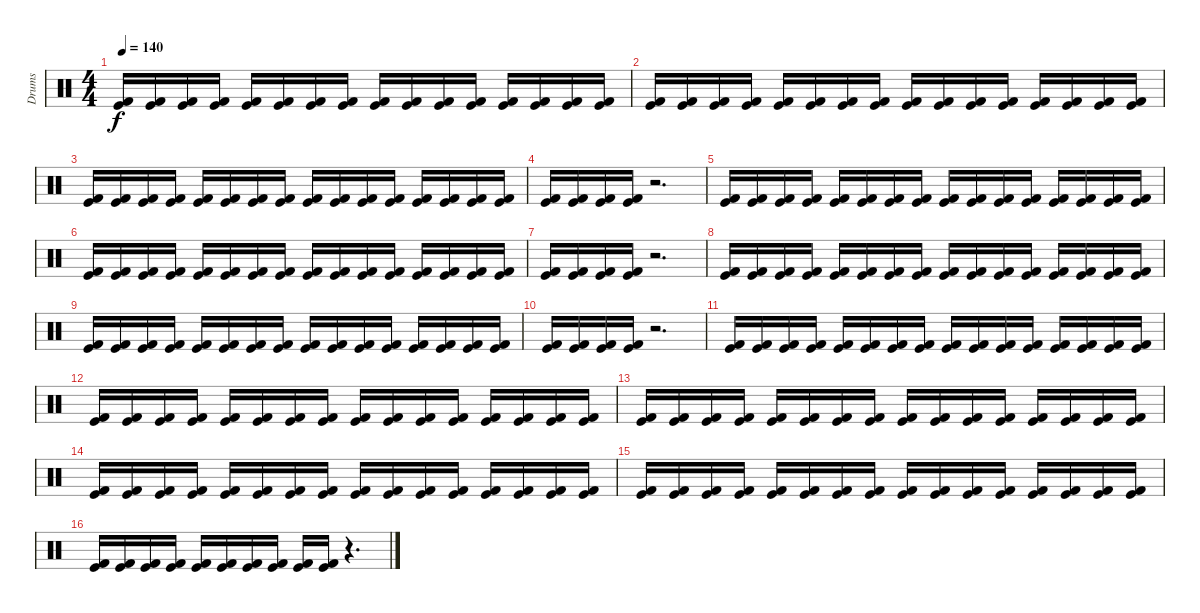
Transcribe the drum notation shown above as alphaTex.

\track ("Drums" "Drums") {instrument percussion}
\staff {score}
\articulation defaults
\ts (4 4)
\tempo 140
\clef neutral
\ks c
("Kick (hit) 2" "Kick (hit)").16{dy f} ("Kick (hit) 2" "Kick (hit)").16 ("Kick (hit) 2" "Kick (hit)").16 ("Kick (hit) 2" "Kick (hit)").16 ("Kick (hit) 2" "Kick (hit)").16 ("Kick (hit) 2" "Kick (hit)").16 ("Kick (hit) 2" "Kick (hit)").16 ("Kick (hit) 2" "Kick (hit)").16 ("Kick (hit) 2" "Kick (hit)").16 ("Kick (hit) 2" "Kick (hit)").16 ("Kick (hit) 2" "Kick (hit)").16 ("Kick (hit) 2" "Kick (hit)").16 ("Kick (hit) 2" "Kick (hit)").16 ("Kick (hit) 2" "Kick (hit)").16 ("Kick (hit) 2" "Kick (hit)").16 ("Kick (hit) 2" "Kick (hit)").16 |
("Kick (hit) 2" "Kick (hit)").16 ("Kick (hit) 2" "Kick (hit)").16 ("Kick (hit) 2" "Kick (hit)").16 ("Kick (hit) 2" "Kick (hit)").16 ("Kick (hit) 2" "Kick (hit)").16 ("Kick (hit) 2" "Kick (hit)").16 ("Kick (hit) 2" "Kick (hit)").16 ("Kick (hit) 2" "Kick (hit)").16 ("Kick (hit) 2" "Kick (hit)").16 ("Kick (hit) 2" "Kick (hit)").16 ("Kick (hit) 2" "Kick (hit)").16 ("Kick (hit) 2" "Kick (hit)").16 ("Kick (hit) 2" "Kick (hit)").16 ("Kick (hit) 2" "Kick (hit)").16 ("Kick (hit) 2" "Kick (hit)").16 ("Kick (hit) 2" "Kick (hit)").16 |
("Kick (hit) 2" "Kick (hit)").16 ("Kick (hit) 2" "Kick (hit)").16 ("Kick (hit) 2" "Kick (hit)").16 ("Kick (hit) 2" "Kick (hit)").16 ("Kick (hit) 2" "Kick (hit)").16 ("Kick (hit) 2" "Kick (hit)").16 ("Kick (hit) 2" "Kick (hit)").16 ("Kick (hit) 2" "Kick (hit)").16 ("Kick (hit) 2" "Kick (hit)").16 ("Kick (hit) 2" "Kick (hit)").16 ("Kick (hit) 2" "Kick (hit)").16 ("Kick (hit) 2" "Kick (hit)").16 ("Kick (hit) 2" "Kick (hit)").16 ("Kick (hit) 2" "Kick (hit)").16 ("Kick (hit) 2" "Kick (hit)").16 ("Kick (hit) 2" "Kick (hit)").16 |
("Kick (hit) 2" "Kick (hit)").16 ("Kick (hit) 2" "Kick (hit)").16 ("Kick (hit) 2" "Kick (hit)").16 ("Kick (hit) 2" "Kick (hit)").16 r.2{d} |
("Kick (hit) 2" "Kick (hit)").16 ("Kick (hit) 2" "Kick (hit)").16 ("Kick (hit) 2" "Kick (hit)").16 ("Kick (hit) 2" "Kick (hit)").16 ("Kick (hit) 2" "Kick (hit)").16 ("Kick (hit) 2" "Kick (hit)").16 ("Kick (hit) 2" "Kick (hit)").16 ("Kick (hit) 2" "Kick (hit)").16 ("Kick (hit) 2" "Kick (hit)").16 ("Kick (hit) 2" "Kick (hit)").16 ("Kick (hit) 2" "Kick (hit)").16 ("Kick (hit) 2" "Kick (hit)").16 ("Kick (hit) 2" "Kick (hit)").16 ("Kick (hit) 2" "Kick (hit)").16 ("Kick (hit) 2" "Kick (hit)").16 ("Kick (hit) 2" "Kick (hit)").16 |
("Kick (hit) 2" "Kick (hit)").16 ("Kick (hit) 2" "Kick (hit)").16 ("Kick (hit) 2" "Kick (hit)").16 ("Kick (hit) 2" "Kick (hit)").16 ("Kick (hit) 2" "Kick (hit)").16 ("Kick (hit) 2" "Kick (hit)").16 ("Kick (hit) 2" "Kick (hit)").16 ("Kick (hit) 2" "Kick (hit)").16 ("Kick (hit) 2" "Kick (hit)").16 ("Kick (hit) 2" "Kick (hit)").16 ("Kick (hit) 2" "Kick (hit)").16 ("Kick (hit) 2" "Kick (hit)").16 ("Kick (hit) 2" "Kick (hit)").16 ("Kick (hit) 2" "Kick (hit)").16 ("Kick (hit) 2" "Kick (hit)").16 ("Kick (hit) 2" "Kick (hit)").16 |
("Kick (hit) 2" "Kick (hit)").16 ("Kick (hit) 2" "Kick (hit)").16 ("Kick (hit) 2" "Kick (hit)").16 ("Kick (hit) 2" "Kick (hit)").16 r.2{d} |
("Kick (hit) 2" "Kick (hit)").16 ("Kick (hit) 2" "Kick (hit)").16 ("Kick (hit) 2" "Kick (hit)").16 ("Kick (hit) 2" "Kick (hit)").16 ("Kick (hit) 2" "Kick (hit)").16 ("Kick (hit) 2" "Kick (hit)").16 ("Kick (hit) 2" "Kick (hit)").16 ("Kick (hit) 2" "Kick (hit)").16 ("Kick (hit) 2" "Kick (hit)").16 ("Kick (hit) 2" "Kick (hit)").16 ("Kick (hit) 2" "Kick (hit)").16 ("Kick (hit) 2" "Kick (hit)").16 ("Kick (hit) 2" "Kick (hit)").16 ("Kick (hit) 2" "Kick (hit)").16 ("Kick (hit) 2" "Kick (hit)").16 ("Kick (hit) 2" "Kick (hit)").16 |
("Kick (hit) 2" "Kick (hit)").16 ("Kick (hit) 2" "Kick (hit)").16 ("Kick (hit) 2" "Kick (hit)").16 ("Kick (hit) 2" "Kick (hit)").16 ("Kick (hit) 2" "Kick (hit)").16 ("Kick (hit) 2" "Kick (hit)").16 ("Kick (hit) 2" "Kick (hit)").16 ("Kick (hit) 2" "Kick (hit)").16 ("Kick (hit) 2" "Kick (hit)").16 ("Kick (hit) 2" "Kick (hit)").16 ("Kick (hit) 2" "Kick (hit)").16 ("Kick (hit) 2" "Kick (hit)").16 ("Kick (hit) 2" "Kick (hit)").16 ("Kick (hit) 2" "Kick (hit)").16 ("Kick (hit) 2" "Kick (hit)").16 ("Kick (hit) 2" "Kick (hit)").16 |
("Kick (hit) 2" "Kick (hit)").16 ("Kick (hit) 2" "Kick (hit)").16 ("Kick (hit) 2" "Kick (hit)").16 ("Kick (hit) 2" "Kick (hit)").16 r.2{d} |
("Kick (hit) 2" "Kick (hit)").16 ("Kick (hit) 2" "Kick (hit)").16 ("Kick (hit) 2" "Kick (hit)").16 ("Kick (hit) 2" "Kick (hit)").16 ("Kick (hit) 2" "Kick (hit)").16 ("Kick (hit) 2" "Kick (hit)").16 ("Kick (hit) 2" "Kick (hit)").16 ("Kick (hit) 2" "Kick (hit)").16 ("Kick (hit) 2" "Kick (hit)").16 ("Kick (hit) 2" "Kick (hit)").16 ("Kick (hit) 2" "Kick (hit)").16 ("Kick (hit) 2" "Kick (hit)").16 ("Kick (hit) 2" "Kick (hit)").16 ("Kick (hit) 2" "Kick (hit)").16 ("Kick (hit) 2" "Kick (hit)").16 ("Kick (hit) 2" "Kick (hit)").16 |
("Kick (hit) 2" "Kick (hit)").16 ("Kick (hit) 2" "Kick (hit)").16 ("Kick (hit) 2" "Kick (hit)").16 ("Kick (hit) 2" "Kick (hit)").16 ("Kick (hit) 2" "Kick (hit)").16 ("Kick (hit) 2" "Kick (hit)").16 ("Kick (hit) 2" "Kick (hit)").16 ("Kick (hit) 2" "Kick (hit)").16 ("Kick (hit) 2" "Kick (hit)").16 ("Kick (hit) 2" "Kick (hit)").16 ("Kick (hit) 2" "Kick (hit)").16 ("Kick (hit) 2" "Kick (hit)").16 ("Kick (hit) 2" "Kick (hit)").16 ("Kick (hit) 2" "Kick (hit)").16 ("Kick (hit) 2" "Kick (hit)").16 ("Kick (hit) 2" "Kick (hit)").16 |
("Kick (hit) 2" "Kick (hit)").16 ("Kick (hit) 2" "Kick (hit)").16 ("Kick (hit) 2" "Kick (hit)").16 ("Kick (hit) 2" "Kick (hit)").16 ("Kick (hit) 2" "Kick (hit)").16 ("Kick (hit) 2" "Kick (hit)").16 ("Kick (hit) 2" "Kick (hit)").16 ("Kick (hit) 2" "Kick (hit)").16 ("Kick (hit) 2" "Kick (hit)").16 ("Kick (hit) 2" "Kick (hit)").16 ("Kick (hit) 2" "Kick (hit)").16 ("Kick (hit) 2" "Kick (hit)").16 ("Kick (hit) 2" "Kick (hit)").16 ("Kick (hit) 2" "Kick (hit)").16 ("Kick (hit) 2" "Kick (hit)").16 ("Kick (hit) 2" "Kick (hit)").16 |
("Kick (hit) 2" "Kick (hit)").16 ("Kick (hit) 2" "Kick (hit)").16 ("Kick (hit) 2" "Kick (hit)").16 ("Kick (hit) 2" "Kick (hit)").16 ("Kick (hit) 2" "Kick (hit)").16 ("Kick (hit) 2" "Kick (hit)").16 ("Kick (hit) 2" "Kick (hit)").16 ("Kick (hit) 2" "Kick (hit)").16 ("Kick (hit) 2" "Kick (hit)").16 ("Kick (hit) 2" "Kick (hit)").16 ("Kick (hit) 2" "Kick (hit)").16 ("Kick (hit) 2" "Kick (hit)").16 ("Kick (hit) 2" "Kick (hit)").16 ("Kick (hit) 2" "Kick (hit)").16 ("Kick (hit) 2" "Kick (hit)").16 ("Kick (hit) 2" "Kick (hit)").16 |
("Kick (hit) 2" "Kick (hit)").16 ("Kick (hit) 2" "Kick (hit)").16 ("Kick (hit) 2" "Kick (hit)").16 ("Kick (hit) 2" "Kick (hit)").16 ("Kick (hit) 2" "Kick (hit)").16 ("Kick (hit) 2" "Kick (hit)").16 ("Kick (hit) 2" "Kick (hit)").16 ("Kick (hit) 2" "Kick (hit)").16 ("Kick (hit) 2" "Kick (hit)").16 ("Kick (hit) 2" "Kick (hit)").16 ("Kick (hit) 2" "Kick (hit)").16 ("Kick (hit) 2" "Kick (hit)").16 ("Kick (hit) 2" "Kick (hit)").16 ("Kick (hit) 2" "Kick (hit)").16 ("Kick (hit) 2" "Kick (hit)").16 ("Kick (hit) 2" "Kick (hit)").16 |
("Kick (hit) 2" "Kick (hit)").16 ("Kick (hit) 2" "Kick (hit)").16 ("Kick (hit) 2" "Kick (hit)").16 ("Kick (hit) 2" "Kick (hit)").16 ("Kick (hit) 2" "Kick (hit)").16 ("Kick (hit) 2" "Kick (hit)").16 ("Kick (hit) 2" "Kick (hit)").16 ("Kick (hit) 2" "Kick (hit)").16 ("Kick (hit) 2" "Kick (hit)").16 ("Kick (hit) 2" "Kick (hit)").16 r.4{d}
